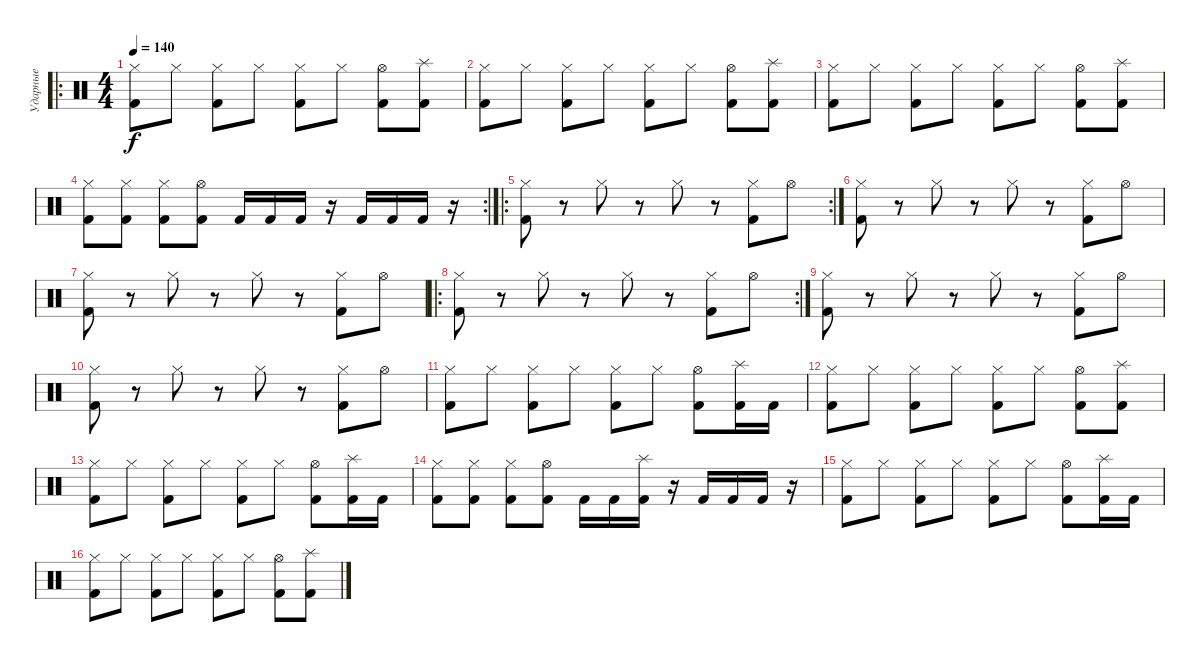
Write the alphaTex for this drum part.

\track ("Ударные" "Ударные") {instrument percussion}
\staff {score}
\articulation defaults
\ro
\ts (4 4)
\tempo 140
\clef neutral
\ks c
("Hi-Hat (closed)" "Kick (hit) 2").8{dy f} "Hi-Hat (closed)".8 ("Hi-Hat (closed)" "Kick (hit) 2").8 "Hi-Hat (closed)".8 ("Hi-Hat (closed)" "Kick (hit) 2").8 "Hi-Hat (closed)".8 ("Hi-Hat (open)" "Kick (hit) 2").8 ("Splash (hit)" "Kick (hit) 2").8 |
("Hi-Hat (closed)" "Kick (hit) 2").8 "Hi-Hat (closed)".8 ("Hi-Hat (closed)" "Kick (hit) 2").8 "Hi-Hat (closed)".8 ("Hi-Hat (closed)" "Kick (hit) 2").8 "Hi-Hat (closed)".8 ("Hi-Hat (open)" "Kick (hit) 2").8 ("Splash (hit)" "Kick (hit) 2").8 |
("Hi-Hat (closed)" "Kick (hit) 2").8 "Hi-Hat (closed)".8 ("Hi-Hat (closed)" "Kick (hit) 2").8 "Hi-Hat (closed)".8 ("Hi-Hat (closed)" "Kick (hit) 2").8 "Hi-Hat (closed)".8 ("Hi-Hat (open)" "Kick (hit) 2").8 ("Splash (hit)" "Kick (hit) 2").8 |
\rc 2
("Hi-Hat (closed)" "Kick (hit) 2").8 ("Hi-Hat (closed)" "Kick (hit) 2").8 ("Hi-Hat (closed)" "Kick (hit) 2").8 ("Hi-Hat (open)" "Kick (hit) 2").8 "Kick (hit) 2".16 "Kick (hit) 2".16 "Kick (hit) 2".16 r.16 "Kick (hit) 2".16 "Kick (hit) 2".16 "Kick (hit) 2".16 r.16 |
\ro
\rc 2
("Hi-Hat (closed)" "Kick (hit) 2").8 r.8 "Hi-Hat (closed)".8 r.8 "Hi-Hat (closed)".8 r.8 ("Hi-Hat (closed)" "Kick (hit) 2").8 "Hi-Hat (open)".8 |
("Hi-Hat (closed)" "Kick (hit) 2").8 r.8 "Hi-Hat (closed)".8 r.8 "Hi-Hat (closed)".8 r.8 ("Hi-Hat (closed)" "Kick (hit) 2").8 "Hi-Hat (open)".8 |
("Hi-Hat (closed)" "Kick (hit) 2").8 r.8 "Hi-Hat (closed)".8 r.8 "Hi-Hat (closed)".8 r.8 ("Hi-Hat (closed)" "Kick (hit) 2").8 "Hi-Hat (open)".8 |
\ro
\rc 2
("Hi-Hat (closed)" "Kick (hit) 2").8 r.8 "Hi-Hat (closed)".8 r.8 "Hi-Hat (closed)".8 r.8 ("Hi-Hat (closed)" "Kick (hit) 2").8 "Hi-Hat (open)".8 |
("Hi-Hat (closed)" "Kick (hit) 2").8 r.8 "Hi-Hat (closed)".8 r.8 "Hi-Hat (closed)".8 r.8 ("Hi-Hat (closed)" "Kick (hit) 2").8 "Hi-Hat (open)".8 |
("Hi-Hat (closed)" "Kick (hit) 2").8 r.8 "Hi-Hat (closed)".8 r.8 "Hi-Hat (closed)".8 r.8 ("Hi-Hat (closed)" "Kick (hit) 2").8 "Hi-Hat (open)".8 |
("Hi-Hat (closed)" "Kick (hit) 2").8 "Hi-Hat (closed)".8 ("Hi-Hat (closed)" "Kick (hit) 2").8 "Hi-Hat (closed)".8 ("Hi-Hat (closed)" "Kick (hit) 2").8 "Hi-Hat (closed)".8 ("Hi-Hat (open)" "Kick (hit) 2").8 ("Splash (hit)" "Kick (hit) 2").16 "Kick (hit) 2".16 |
("Hi-Hat (closed)" "Kick (hit) 2").8 "Hi-Hat (closed)".8 ("Hi-Hat (closed)" "Kick (hit) 2").8 "Hi-Hat (closed)".8 ("Hi-Hat (closed)" "Kick (hit) 2").8 "Hi-Hat (closed)".8 ("Hi-Hat (open)" "Kick (hit) 2").8 ("Splash (hit)" "Kick (hit) 2").8 |
("Hi-Hat (closed)" "Kick (hit) 2").8 "Hi-Hat (closed)".8 ("Hi-Hat (closed)" "Kick (hit) 2").8 "Hi-Hat (closed)".8 ("Hi-Hat (closed)" "Kick (hit) 2").8 "Hi-Hat (closed)".8 ("Hi-Hat (open)" "Kick (hit) 2").8 ("Splash (hit)" "Kick (hit) 2").16 "Kick (hit) 2".16 |
("Hi-Hat (closed)" "Kick (hit) 2").8 ("Hi-Hat (closed)" "Kick (hit) 2").8 ("Hi-Hat (closed)" "Kick (hit) 2").8 ("Hi-Hat (open)" "Kick (hit) 2").8 "Kick (hit) 2".16 "Kick (hit) 2".16 ("Splash (hit)" "Kick (hit) 2").16 r.16 "Kick (hit) 2".16 "Kick (hit) 2".16 "Kick (hit) 2".16 r.16 |
("Hi-Hat (closed)" "Kick (hit) 2").8 "Hi-Hat (closed)".8 ("Hi-Hat (closed)" "Kick (hit) 2").8 "Hi-Hat (closed)".8 ("Hi-Hat (closed)" "Kick (hit) 2").8 "Hi-Hat (closed)".8 ("Hi-Hat (open)" "Kick (hit) 2").8 ("Splash (hit)" "Kick (hit) 2").16 "Kick (hit) 2".16 |
("Hi-Hat (closed)" "Kick (hit) 2").8 "Hi-Hat (closed)".8 ("Hi-Hat (closed)" "Kick (hit) 2").8 "Hi-Hat (closed)".8 ("Hi-Hat (closed)" "Kick (hit) 2").8 "Hi-Hat (closed)".8 ("Hi-Hat (open)" "Kick (hit) 2").8 ("Splash (hit)" "Kick (hit) 2").8
